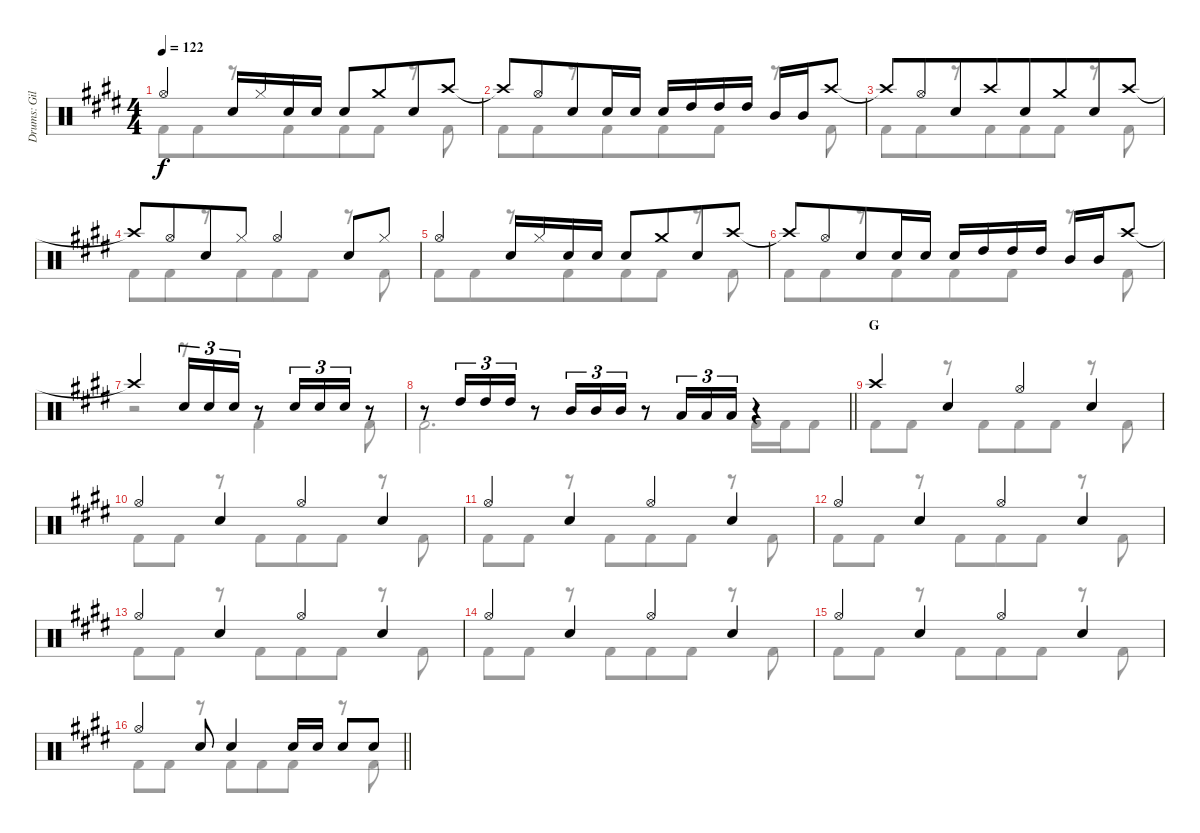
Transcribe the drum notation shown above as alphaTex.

\track ("Drums: Gil" "Drums: Gil") {instrument percussion}
\staff {score}
\articulation defaults
\voice
\ts (4 4)
\tempo 122
\clef neutral
\ks e "Hi-Hat (open)".4{dy f beam merge} "Snare (hit) 2".16 "Hi-Hat (closed)".16 "Snare (hit) 2".16 "Snare (hit) 2".16 "Snare (hit) 2".8 "Crash medium (hit)".8{beam merge} "Electric Snare (hit)".8 "Crash high (hit)".8
|
"Crash high (hit)"{t}.8 "Hi-Hat (open)".8{beam merge} "Snare (hit) 2".8 "Snare (hit) 2".16 "Snare (hit) 2".16 "Snare (hit) 2".16 "High Tom (hit)".16 "High Tom (hit)".16 "High Tom (hit)".16 "Mid Tom (hit)".16 "Mid Tom (hit)".16 "Crash high (hit)".8 |
"Crash high (hit)"{t}.8 "Hi-Hat (open)".8{beam merge} "Snare (hit) 2".8 "Crash high (hit)".8{beam merge} "Snare (hit) 2".8 "Crash medium (hit)".8{beam merge} "Snare (hit) 2".8 "Crash high (hit)".8 |
"Crash high (hit)"{t}.8 "Hi-Hat (open)".8{beam merge} "Snare (hit) 2".8 "Hi-Hat (closed)".8 "Hi-Hat (open)".4 "Snare (hit) 2".8 "Hi-Hat (closed)".8 |
"Hi-Hat (open)".4{beam merge} "Snare (hit) 2".16 "Hi-Hat (closed)".16 "Snare (hit) 2".16 "Snare (hit) 2".16 "Snare (hit) 2".8 "Crash medium (hit)".8{beam merge} "Electric Snare (hit)".8 "Crash high (hit)".8 |
"Crash high (hit)"{t}.8 "Hi-Hat (open)".8{beam merge} "Snare (hit) 2".8 "Snare (hit) 2".16 "Snare (hit) 2".16 "Snare (hit) 2".16 "High Tom (hit)".16 "High Tom (hit)".16 "High Tom (hit)".16 "Mid Tom (hit)".16 "Mid Tom (hit)".16 "Crash high (hit)".8 |
"Crash high (hit)"{t}.2{beam merge} "Snare (hit) 2".16{tu (3 2) beam merge} "Snare (hit) 2".16{tu (3 2)} "Snare (hit) 2".16{tu (3 2)} r.8 "Snare (hit) 2".16{tu (3 2)} "Snare (hit) 2".16{tu (3 2)} "Snare (hit) 2".16{tu (3 2)} r.8 |
\barLineRight lightlight
r.8{beam merge} "High Tom (hit)".16{tu (3 2) beam merge} "High Tom (hit)".16{tu (3 2)} "High Tom (hit)".16{tu (3 2)} r.8 "Mid Tom (hit)".16{tu (3 2)} "Mid Tom (hit)".16{tu (3 2)} "Mid Tom (hit)".16{tu (3 2)} r.8 "Low Tom (hit)".16{tu (3 2)} "Low Tom (hit)".16{tu (3 2)} "Low Tom (hit)".16{tu (3 2)} r.4 |
\section ("" "G")
"Crash high (hit)".4 "Snare (hit) 2".4 "Hi-Hat (open)".4 "Snare (hit) 2".4 |
"Hi-Hat (open)".4 "Snare (hit) 2".4 "Hi-Hat (open)".4 "Snare (hit) 2".4 |
"Hi-Hat (open)".4 "Snare (hit) 2".4 "Hi-Hat (open)".4 "Snare (hit) 2".4 |
"Hi-Hat (open)".4 "Snare (hit) 2".4 "Hi-Hat (open)".4 "Snare (hit) 2".4 |
"Hi-Hat (open)".4 "Snare (hit) 2".4 "Hi-Hat (open)".4 "Snare (hit) 2".4 |
"Hi-Hat (open)".4 "Snare (hit) 2".4 "Hi-Hat (open)".4 "Snare (hit) 2".4 |
"Hi-Hat (open)".4 "Snare (hit) 2".4 "Hi-Hat (open)".4 "Snare (hit) 2".4 |
\barLineRight lightlight "Hi-Hat (open)".4 "Snare (hit) 2".8 "Snare (hit) 2".4 "Snare (hit) 2".16 "Snare (hit) 2".16 "Snare (hit) 2".8 "Snare (hit) 2".8
\voice
\clef neutral
\ottava regular
\simile none
\ks e "Kick (hit) 2".8{dy f} "Kick (hit) 2".8{beam merge}
r.8{beam merge} "Kick (hit) 2".8{beam merge} "Kick (hit) 2".8 "Kick (hit) 2".8 r.8 "Kick (hit) 2".8 |
"Kick (hit) 2".8 "Kick (hit) 2".8{beam merge} r.8{beam merge} "Kick (hit) 2".8{beam merge} "Kick (hit) 2".8 "Kick (hit) 2".8 r.8 "Kick (hit) 2".8 |
"Kick (hit) 2".8 "Kick (hit) 2".8{beam merge} r.8{beam merge} "Kick (hit) 2".8{beam merge} "Kick (hit) 2".8 "Kick (hit) 2".8 r.8 "Kick (hit) 2".8 |
"Kick (hit) 2".8 "Kick (hit) 2".8{beam merge} r.8{beam merge} "Kick (hit) 2".8{beam merge} "Kick (hit) 2".8 "Kick (hit) 2".8 r.8 "Kick (hit) 2".8 |
"Kick (hit) 2".8 "Kick (hit) 2".8{beam merge} r.8{beam merge} "Kick (hit) 2".8{beam merge} "Kick (hit) 2".8 "Kick (hit) 2".8 r.8 "Kick (hit) 2".8 |
"Kick (hit) 2".8 "Kick (hit) 2".8{beam merge} r.8{beam merge} "Kick (hit) 2".8{beam merge} "Kick (hit) 2".8 "Kick (hit) 2".8 r.8 "Kick (hit) 2".8 |
r.2 r.8 "Kick (hit) 2".4 "Kick (hit) 2".8 |
\barLineRight lightlight "Kick (hit) 2".2{d} "Kick (hit) 2".16 "Kick (hit) 2".16 "Kick (hit) 2".8
|
"Kick (hit) 2".8 "Kick (hit) 2".8 r.8 "Kick (hit) 2".8{beam merge} "Kick (hit) 2".8 "Kick (hit) 2".8 r.8 "Kick (hit) 2".8 |
"Kick (hit) 2".8 "Kick (hit) 2".8 r.8 "Kick (hit) 2".8{beam merge} "Kick (hit) 2".8 "Kick (hit) 2".8 r.8 "Kick (hit) 2".8 |
"Kick (hit) 2".8 "Kick (hit) 2".8 r.8 "Kick (hit) 2".8{beam merge} "Kick (hit) 2".8 "Kick (hit) 2".8 r.8 "Kick (hit) 2".8 |
"Kick (hit) 2".8 "Kick (hit) 2".8 r.8 "Kick (hit) 2".8{beam merge} "Kick (hit) 2".8 "Kick (hit) 2".8 r.8 "Kick (hit) 2".8 |
"Kick (hit) 2".8 "Kick (hit) 2".8 r.8 "Kick (hit) 2".8{beam merge} "Kick (hit) 2".8 "Kick (hit) 2".8 r.8 "Kick (hit) 2".8 |
"Kick (hit) 2".8 "Kick (hit) 2".8 r.8 "Kick (hit) 2".8{beam merge} "Kick (hit) 2".8 "Kick (hit) 2".8 r.8 "Kick (hit) 2".8 |
"Kick (hit) 2".8 "Kick (hit) 2".8 r.8 "Kick (hit) 2".8{beam merge} "Kick (hit) 2".8 "Kick (hit) 2".8 r.8 "Kick (hit) 2".8 |
\barLineRight lightlight "Kick (hit) 2".8 "Kick (hit) 2".8
r.8 "Kick (hit) 2".8{beam merge} "Kick (hit) 2".8 "Kick (hit) 2".8 r.8 "Kick (hit) 2".8
